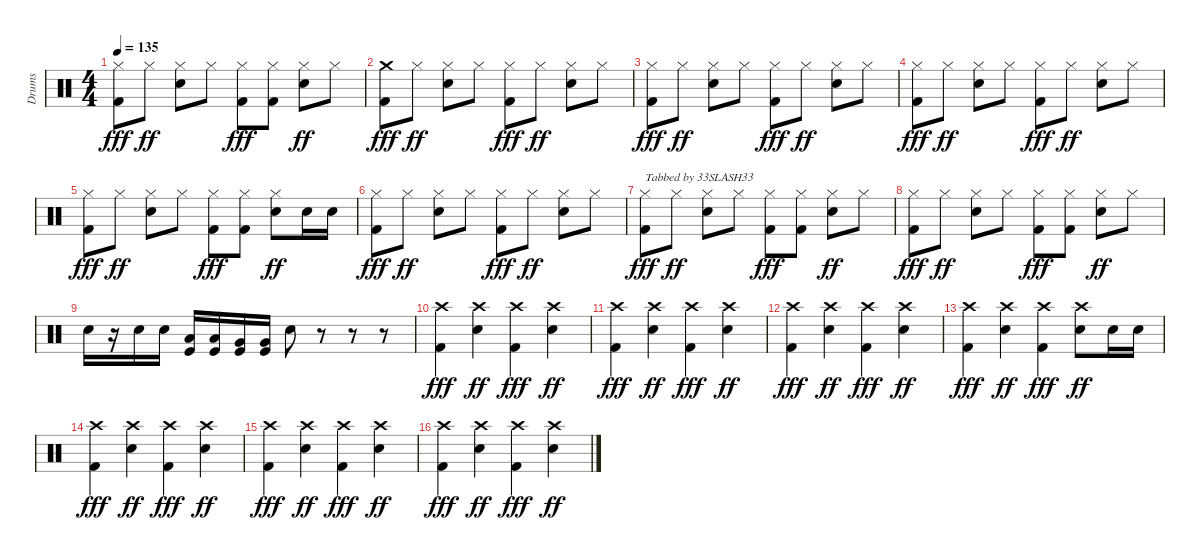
\track ("Drums" "Drums") {instrument percussion}
\staff {score}
\articulation defaults
\ts (4 4)
\tempo 135
\clef neutral
\ks c
("Hi-Hat (closed)" "Kick (hit) 2").8{dy fff} "Hi-Hat (closed)".8{dy ff} ("Hi-Hat (closed)" "Snare (hit) 2").8 "Hi-Hat (closed)".8 ("Hi-Hat (closed)" "Kick (hit) 2").8{dy fff} ("Hi-Hat (closed)" "Kick (hit) 2").8 ("Hi-Hat (closed)" "Snare (hit) 2").8{dy ff} "Hi-Hat (closed)".8 |
("Crash medium (hit)" "Kick (hit) 2").8{dy fff} "Hi-Hat (closed)".8{dy ff} ("Hi-Hat (closed)" "Snare (hit) 2").8 "Hi-Hat (closed)".8 ("Hi-Hat (closed)" "Kick (hit) 2").8{dy fff} "Hi-Hat (closed)".8{dy ff} ("Hi-Hat (closed)" "Snare (hit) 2").8 "Hi-Hat (closed)".8 |
("Hi-Hat (closed)" "Kick (hit) 2").8{dy fff} "Hi-Hat (closed)".8{dy ff} ("Hi-Hat (closed)" "Snare (hit) 2").8 "Hi-Hat (closed)".8 ("Hi-Hat (closed)" "Kick (hit) 2").8{dy fff} "Hi-Hat (closed)".8{dy ff} ("Hi-Hat (closed)" "Snare (hit) 2").8 "Hi-Hat (closed)".8 |
("Hi-Hat (closed)" "Kick (hit) 2").8{dy fff} "Hi-Hat (closed)".8{dy ff} ("Hi-Hat (closed)" "Snare (hit) 2").8 "Hi-Hat (closed)".8 ("Hi-Hat (closed)" "Kick (hit) 2").8{dy fff} "Hi-Hat (closed)".8{dy ff} ("Hi-Hat (closed)" "Snare (hit) 2").8 "Hi-Hat (closed)".8 |
("Hi-Hat (closed)" "Kick (hit) 2").8{dy fff} "Hi-Hat (closed)".8{dy ff} ("Hi-Hat (closed)" "Snare (hit) 2").8 "Hi-Hat (closed)".8 ("Hi-Hat (closed)" "Kick (hit) 2").8{dy fff} ("Hi-Hat (closed)" "Kick (hit) 2").8 ("Hi-Hat (closed)" "Snare (hit) 2").8{dy ff} "Snare (hit) 2".16 "Snare (hit) 2".16 |
("Hi-Hat (closed)" "Kick (hit) 2").8{dy fff} "Hi-Hat (closed)".8{dy ff} ("Hi-Hat (closed)" "Snare (hit) 2").8 "Hi-Hat (closed)".8 ("Hi-Hat (closed)" "Kick (hit) 2").8{dy fff} "Hi-Hat (closed)".8{dy ff} ("Hi-Hat (closed)" "Snare (hit) 2").8 "Hi-Hat (closed)".8 |
("Hi-Hat (closed)" "Kick (hit) 2").8{txt "Tabbed by 33SLASH33" dy fff} "Hi-Hat (closed)".8{dy ff} ("Hi-Hat (closed)" "Snare (hit) 2").8 "Hi-Hat (closed)".8 ("Hi-Hat (closed)" "Kick (hit) 2").8{dy fff} ("Hi-Hat (closed)" "Kick (hit) 2").8 ("Hi-Hat (closed)" "Snare (hit) 2").8{dy ff} "Hi-Hat (closed)".8 |
("Hi-Hat (closed)" "Kick (hit) 2").8{dy fff} "Hi-Hat (closed)".8{dy ff} ("Hi-Hat (closed)" "Snare (hit) 2").8 "Hi-Hat (closed)".8 ("Hi-Hat (closed)" "Kick (hit) 2").8{dy fff} ("Hi-Hat (closed)" "Kick (hit) 2").8 ("Hi-Hat (closed)" "Snare (hit) 2").8{dy ff} "Hi-Hat (closed)".8 |
"Snare (hit) 2".16 r.16 "Snare (hit) 2".16 "Snare (hit) 2".16 ("Low Tom (hit)" "Kick (hit)").16 ("Low Tom (hit)" "Kick (hit)").16 ("Very Low Tom (hit)" "Kick (hit)").16 ("Very Low Tom (hit)" "Kick (hit)").16 "Snare (hit) 2".8 r.8 r.8 r.8 |
("Crash high (hit)" "Kick (hit) 2").4{dy fff} ("Crash high (hit)" "Snare (hit) 2").4{dy ff} ("Crash high (hit)" "Kick (hit) 2").4{dy fff} ("Crash high (hit)" "Snare (hit) 2").4{dy ff} |
("Crash high (hit)" "Kick (hit) 2").4{dy fff} ("Crash high (hit)" "Snare (hit) 2").4{dy ff} ("Crash high (hit)" "Kick (hit) 2").4{dy fff} ("Crash high (hit)" "Snare (hit) 2").4{dy ff} |
("Crash high (hit)" "Kick (hit) 2").4{dy fff} ("Crash high (hit)" "Snare (hit) 2").4{dy ff} ("Crash high (hit)" "Kick (hit) 2").4{dy fff} ("Crash high (hit)" "Snare (hit) 2").4{dy ff} |
("Crash high (hit)" "Kick (hit) 2").4{dy fff} ("Crash high (hit)" "Snare (hit) 2").4{dy ff} ("Crash high (hit)" "Kick (hit) 2").4{dy fff} ("Crash high (hit)" "Snare (hit) 2").8{dy ff} "Snare (hit) 2".16 "Snare (hit) 2".16 |
("Crash high (hit)" "Kick (hit) 2").4{dy fff} ("Crash high (hit)" "Snare (hit) 2").4{dy ff} ("Crash high (hit)" "Kick (hit) 2").4{dy fff} ("Crash high (hit)" "Snare (hit) 2").4{dy ff} |
("Crash high (hit)" "Kick (hit) 2").4{dy fff} ("Crash high (hit)" "Snare (hit) 2").4{dy ff} ("Crash high (hit)" "Kick (hit) 2").4{dy fff} ("Crash high (hit)" "Snare (hit) 2").4{dy ff} |
("Crash high (hit)" "Kick (hit) 2").4{dy fff} ("Crash high (hit)" "Snare (hit) 2").4{dy ff} ("Crash high (hit)" "Kick (hit) 2").4{dy fff} ("Crash high (hit)" "Snare (hit) 2").4{dy ff}
